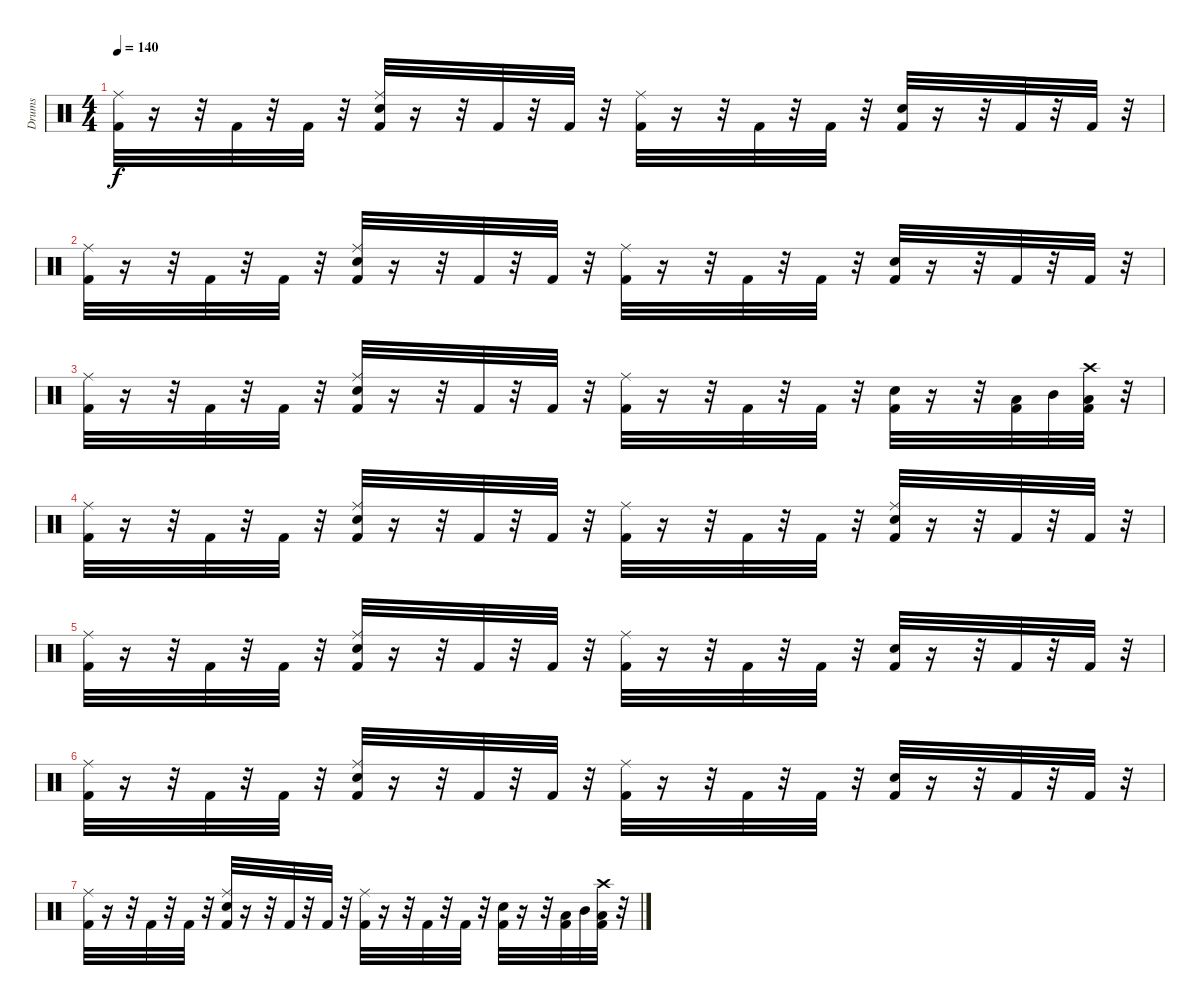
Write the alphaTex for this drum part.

\track ("Drums" "Drums") {instrument percussion}
\staff {score}
\articulation defaults
\ts (4 4)
\tempo 140
\clef neutral
\ks c
("Kick (hit) 2" "Ride (middle)").32{dy f} r.16 r.32 "Kick (hit) 2".32 r.32 "Kick (hit) 2".32 r.32 ("Ride (middle)" "Snare (hit) 2" "Kick (hit) 2").32 r.16 r.32 "Kick (hit) 2".32 r.32 "Kick (hit) 2".32 r.32 ("Kick (hit) 2" "Ride (middle)").32 r.16 r.32 "Kick (hit) 2".32 r.32 "Kick (hit) 2".32 r.32 ("Snare (hit) 2" "Kick (hit) 2").32 r.16 r.32 "Kick (hit) 2".32 r.32 "Kick (hit) 2".32 r.32 |
("Kick (hit) 2" "Ride (middle)").32 r.16 r.32 "Kick (hit) 2".32 r.32 "Kick (hit) 2".32 r.32 ("Ride (middle)" "Snare (hit) 2" "Kick (hit) 2").32 r.16 r.32 "Kick (hit) 2".32 r.32 "Kick (hit) 2".32 r.32 ("Kick (hit) 2" "Ride (middle)").32 r.16 r.32 "Kick (hit) 2".32 r.32 "Kick (hit) 2".32 r.32 ("Snare (hit) 2" "Kick (hit) 2").32 r.16 r.32 "Kick (hit) 2".32 r.32 "Kick (hit) 2".32 r.32 |
("Kick (hit) 2" "Ride (middle)").32 r.16 r.32 "Kick (hit) 2".32 r.32 "Kick (hit) 2".32 r.32 ("Ride (middle)" "Snare (hit) 2" "Kick (hit) 2").32 r.16 r.32 "Kick (hit) 2".32 r.32 "Kick (hit) 2".32 r.32 ("Kick (hit) 2" "Ride (middle)").32 r.16 r.32 "Kick (hit) 2".32 r.32 "Kick (hit) 2".32 r.32 ("Snare (hit) 2" "Kick (hit) 2").32 r.16 r.32 ("Kick (hit) 2" "Low Tom (hit)").32 "Mid Tom (hit)".32 ("Kick (hit) 2" "Crash high (hit)" "Low Tom (hit)").32 r.32 |
("Kick (hit) 2" "Ride (middle)").32 r.16 r.32 "Kick (hit) 2".32 r.32 "Kick (hit) 2".32 r.32 ("Ride (middle)" "Snare (hit) 2" "Kick (hit) 2").32 r.16 r.32 "Kick (hit) 2".32 r.32 "Kick (hit) 2".32 r.32 ("Kick (hit) 2" "Ride (middle)").32 r.16 r.32 "Kick (hit) 2".32 r.32 "Kick (hit) 2".32 r.32 ("Snare (hit) 2" "Ride (middle)" "Kick (hit) 2").32 r.16 r.32 "Kick (hit) 2".32 r.32 "Kick (hit) 2".32 r.32 |
("Kick (hit) 2" "Ride (middle)").32 r.16 r.32 "Kick (hit) 2".32 r.32 "Kick (hit) 2".32 r.32 ("Ride (middle)" "Snare (hit) 2" "Kick (hit) 2").32 r.16 r.32 "Kick (hit) 2".32 r.32 "Kick (hit) 2".32 r.32 ("Kick (hit) 2" "Ride (middle)").32 r.16 r.32 "Kick (hit) 2".32 r.32 "Kick (hit) 2".32 r.32 ("Snare (hit) 2" "Kick (hit) 2").32 r.16 r.32 "Kick (hit) 2".32 r.32 "Kick (hit) 2".32 r.32 |
("Kick (hit) 2" "Ride (middle)").32 r.16 r.32 "Kick (hit) 2".32 r.32 "Kick (hit) 2".32 r.32 ("Ride (middle)" "Snare (hit) 2" "Kick (hit) 2").32 r.16 r.32 "Kick (hit) 2".32 r.32 "Kick (hit) 2".32 r.32 ("Kick (hit) 2" "Ride (middle)").32 r.16 r.32 "Kick (hit) 2".32 r.32 "Kick (hit) 2".32 r.32 ("Snare (hit) 2" "Kick (hit) 2").32 r.16 r.32 "Kick (hit) 2".32 r.32 "Kick (hit) 2".32 r.32 |
("Kick (hit) 2" "Ride (middle)").32 r.16 r.32 "Kick (hit) 2".32 r.32 "Kick (hit) 2".32 r.32 ("Ride (middle)" "Snare (hit) 2" "Kick (hit) 2").32 r.16 r.32 "Kick (hit) 2".32 r.32 "Kick (hit) 2".32 r.32 ("Kick (hit) 2" "Ride (middle)").32 r.16 r.32 "Kick (hit) 2".32 r.32 "Kick (hit) 2".32 r.32 ("Snare (hit) 2" "Kick (hit) 2").32 r.16 r.32 ("Kick (hit) 2" "Low Tom (hit)").32 "Mid Tom (hit)".32 ("Kick (hit) 2" "Crash high (hit)" "Low Tom (hit)").32 r.32
